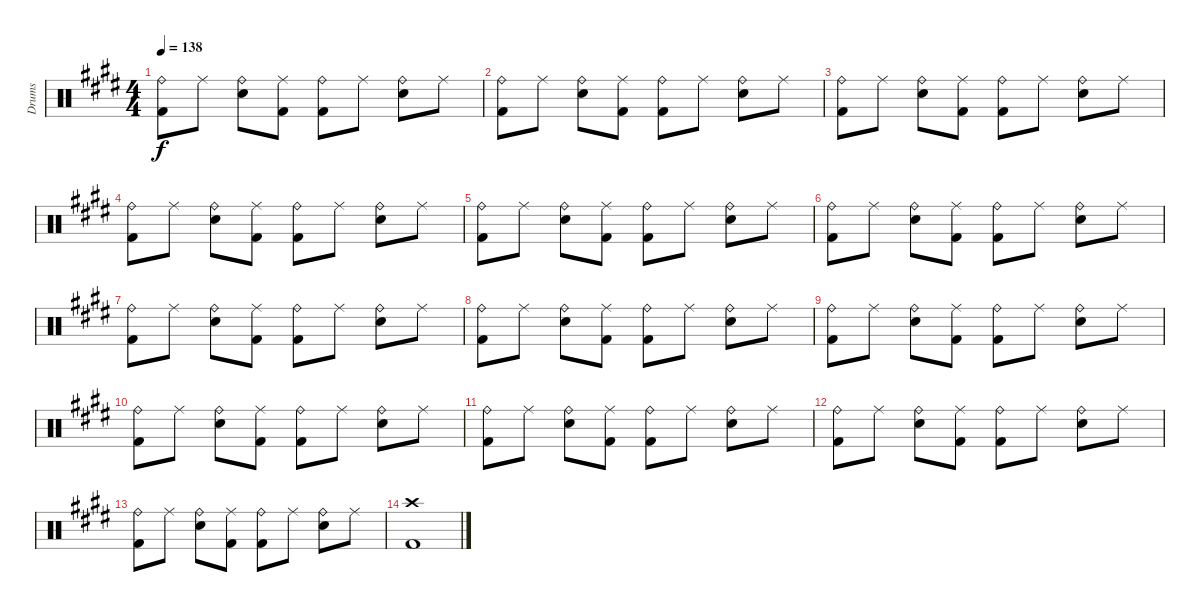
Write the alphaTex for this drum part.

\track ("Drums" "Drums") {instrument percussion}
\staff {score}
\articulation defaults
\ts (4 4)
\tempo 138
\clef neutral
\ks e
("Ride (bell)" "Kick (hit) 2").8{dy f} "Ride (middle)".8 ("Ride (bell)" "Snare (hit) 2").8 ("Ride (middle)" "Kick (hit) 2").8 ("Ride (bell)" "Kick (hit) 2").8 "Ride (middle)".8 ("Ride (bell)" "Snare (hit) 2").8 "Ride (middle)".8 |
("Ride (bell)" "Kick (hit) 2").8 "Ride (middle)".8 ("Ride (bell)" "Snare (hit) 2").8 ("Ride (middle)" "Kick (hit) 2").8 ("Ride (bell)" "Kick (hit) 2").8 "Ride (middle)".8 ("Ride (bell)" "Snare (hit) 2").8 "Ride (middle)".8 |
("Ride (bell)" "Kick (hit) 2").8 "Ride (middle)".8 ("Ride (bell)" "Snare (hit) 2").8 ("Ride (middle)" "Kick (hit) 2").8 ("Ride (bell)" "Kick (hit) 2").8 "Ride (middle)".8 ("Ride (bell)" "Snare (hit) 2").8 "Ride (middle)".8 |
("Ride (bell)" "Kick (hit) 2").8 "Ride (middle)".8 ("Ride (bell)" "Snare (hit) 2").8 ("Ride (middle)" "Kick (hit) 2").8 ("Ride (bell)" "Kick (hit) 2").8 "Ride (middle)".8 ("Ride (bell)" "Snare (hit) 2").8 "Ride (middle)".8 |
("Ride (bell)" "Kick (hit) 2").8 "Ride (middle)".8 ("Ride (bell)" "Snare (hit) 2").8 ("Ride (middle)" "Kick (hit) 2").8 ("Ride (bell)" "Kick (hit) 2").8 "Ride (middle)".8 ("Ride (bell)" "Snare (hit) 2").8 "Ride (middle)".8 |
("Ride (bell)" "Kick (hit) 2").8 "Ride (middle)".8 ("Ride (bell)" "Snare (hit) 2").8 ("Ride (middle)" "Kick (hit) 2").8 ("Ride (bell)" "Kick (hit) 2").8 "Ride (middle)".8 ("Ride (bell)" "Snare (hit) 2").8 "Ride (middle)".8 |
("Ride (bell)" "Kick (hit) 2").8 "Ride (middle)".8 ("Ride (bell)" "Snare (hit) 2").8 ("Ride (middle)" "Kick (hit) 2").8 ("Ride (bell)" "Kick (hit) 2").8 "Ride (middle)".8 ("Ride (bell)" "Snare (hit) 2").8 "Ride (middle)".8 |
("Ride (bell)" "Kick (hit) 2").8 "Ride (middle)".8 ("Ride (bell)" "Snare (hit) 2").8 ("Ride (middle)" "Kick (hit) 2").8 ("Ride (bell)" "Kick (hit) 2").8 "Ride (middle)".8 ("Ride (bell)" "Snare (hit) 2").8 "Ride (middle)".8 |
("Ride (bell)" "Kick (hit) 2").8 "Ride (middle)".8 ("Ride (bell)" "Snare (hit) 2").8 ("Ride (middle)" "Kick (hit) 2").8 ("Ride (bell)" "Kick (hit) 2").8 "Ride (middle)".8 ("Ride (bell)" "Snare (hit) 2").8 "Ride (middle)".8 |
("Ride (bell)" "Kick (hit) 2").8 "Ride (middle)".8 ("Ride (bell)" "Snare (hit) 2").8 ("Ride (middle)" "Kick (hit) 2").8 ("Ride (bell)" "Kick (hit) 2").8 "Ride (middle)".8 ("Ride (bell)" "Snare (hit) 2").8 "Ride (middle)".8 |
("Ride (bell)" "Kick (hit) 2").8 "Ride (middle)".8 ("Ride (bell)" "Snare (hit) 2").8 ("Ride (middle)" "Kick (hit) 2").8 ("Ride (bell)" "Kick (hit) 2").8 "Ride (middle)".8 ("Ride (bell)" "Snare (hit) 2").8 "Ride (middle)".8 |
("Ride (bell)" "Kick (hit) 2").8 "Ride (middle)".8 ("Ride (bell)" "Snare (hit) 2").8 ("Ride (middle)" "Kick (hit) 2").8 ("Ride (bell)" "Kick (hit) 2").8 "Ride (middle)".8 ("Ride (bell)" "Snare (hit) 2").8 "Ride (middle)".8 |
("Ride (bell)" "Kick (hit) 2").8 "Ride (middle)".8 ("Ride (bell)" "Snare (hit) 2").8 ("Ride (middle)" "Kick (hit) 2").8 ("Ride (bell)" "Kick (hit) 2").8 "Ride (middle)".8 ("Ride (bell)" "Snare (hit) 2").8 "Ride (middle)".8 |
("Crash high (hit)" "Kick (hit) 2").1
